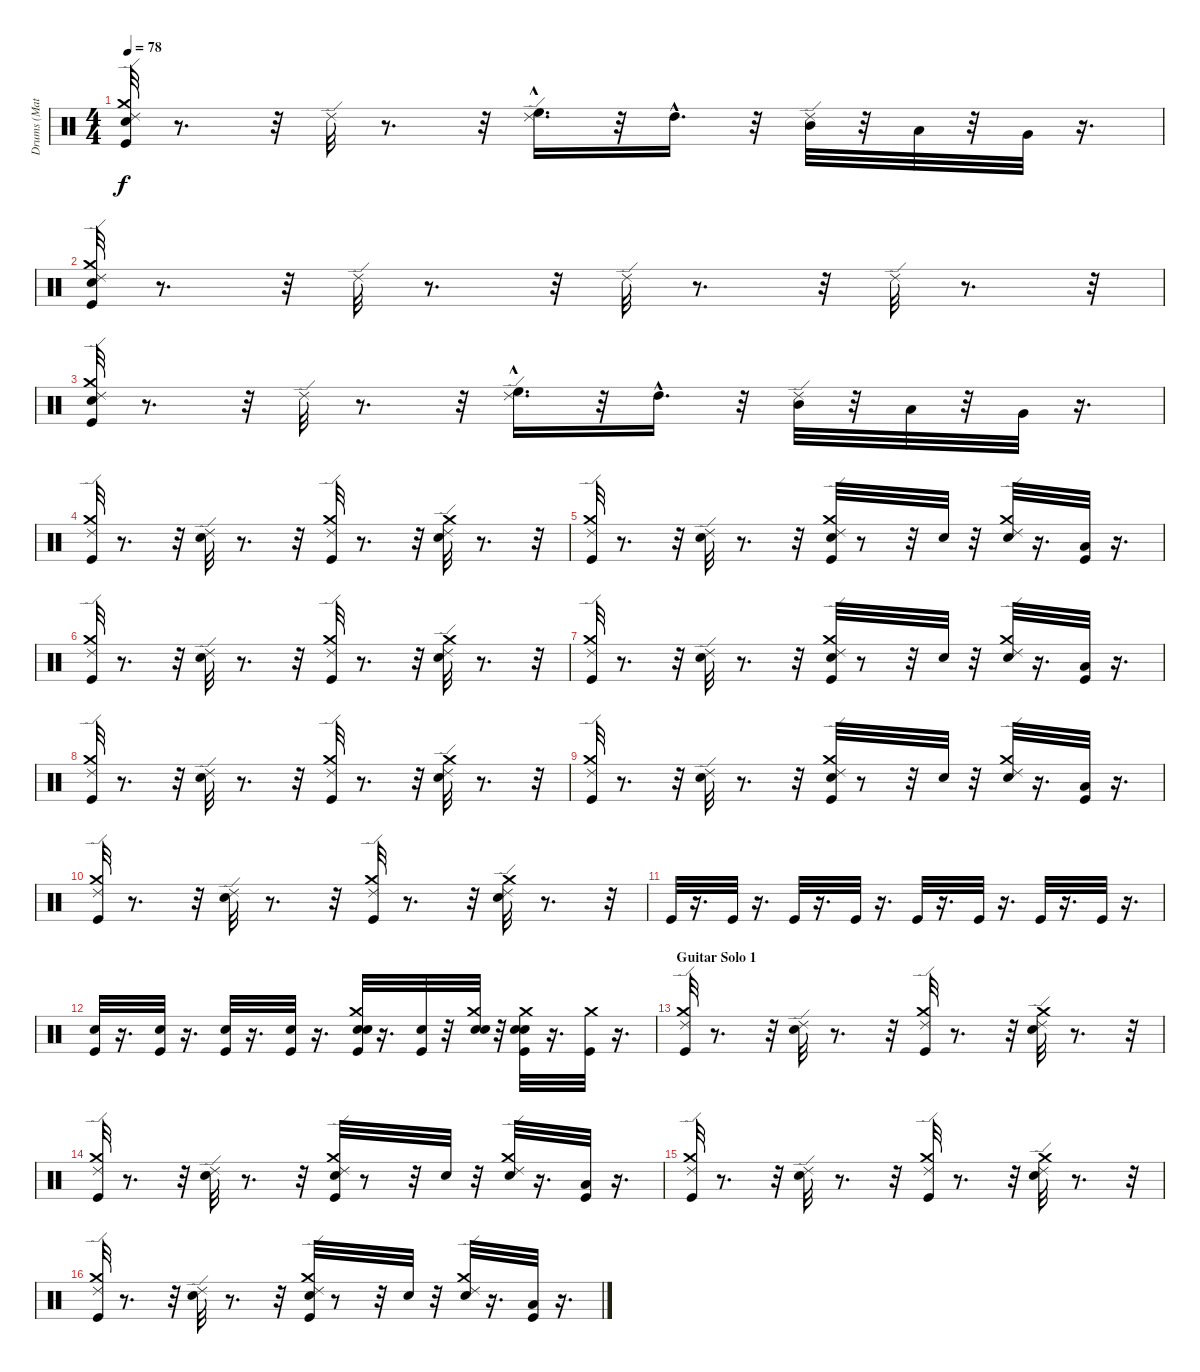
\track ("Drums (Matt)" "Drums (Mat") {instrument percussion}
\staff {score}
\articulation defaults
\ts (4 4)
\tempo 78
\clef neutral
\ks c
("Kick (hit)" "Snare (hit) 2" "Crash medium (hit)" "Ride (edge) 2").32{dy f} r.8{d} r.32 "Ride (edge) 2".32 r.8{d} r.32 ("Ride (edge) 2" "High Floor Tom (hit)"{hac}).16{d} r.32 "High Tom (hit)"{hac}.16{d} r.32 ("Ride (edge) 2" "Mid Tom (hit)").32 r.32 "Low Tom (hit)".32 r.32 "Very Low Tom (hit)".32 r.16{d} |
("Kick (hit)" "Snare (hit) 2" "Crash medium (hit)" "Ride (edge) 2").32 r.8{d} r.32 "Ride (edge) 2".32 r.8{d} r.32 "Ride (edge) 2".32 r.8{d} r.32 "Ride (edge) 2".32 r.8{d} r.32 |
("Kick (hit)" "Snare (hit) 2" "Crash medium (hit)" "Ride (edge) 2").32 r.8{d} r.32 "Ride (edge) 2".32 r.8{d} r.32 ("Ride (edge) 2" "High Floor Tom (hit)"{hac}).16{d} r.32 "High Tom (hit)"{hac}.16{d} r.32 ("Ride (edge) 2" "Mid Tom (hit)").32 r.32 "Low Tom (hit)".32 r.32 "Very Low Tom (hit)".32 r.16{d} |
("Kick (hit)" "Crash medium (hit)" "Ride (edge) 2").32 r.8{d} r.32 ("Snare (hit) 2" "Ride (edge) 2").32 r.8{d} r.32 ("Ride (edge) 2" "Crash medium (hit)" "Kick (hit)").32 r.8{d} r.32 ("Ride (edge) 2" "Crash medium (hit)" "Snare (hit) 2").32 r.8{d} r.32 |
("Kick (hit)" "Crash medium (hit)" "Ride (edge) 2").32 r.8{d} r.32 ("Snare (hit) 2" "Ride (edge) 2").32 r.8{d} r.32 ("Ride (edge) 2" "Crash medium (hit)" "Kick (hit)" "Snare (hit) 2").32 r.8 r.32 "Snare (hit) 2".32 r.32 ("Ride (edge) 2" "Crash medium (hit)" "Snare (hit) 2").32 r.16{d} ("Kick (hit)" "Low Floor Tom (hit)").32 r.16{d} |
("Kick (hit)" "Crash medium (hit)" "Ride (edge) 2").32 r.8{d} r.32 ("Snare (hit) 2" "Ride (edge) 2").32 r.8{d} r.32 ("Ride (edge) 2" "Crash medium (hit)" "Kick (hit)").32 r.8{d} r.32 ("Ride (edge) 2" "Crash medium (hit)" "Snare (hit) 2").32 r.8{d} r.32 |
("Kick (hit)" "Crash medium (hit)" "Ride (edge) 2").32 r.8{d} r.32 ("Snare (hit) 2" "Ride (edge) 2").32 r.8{d} r.32 ("Ride (edge) 2" "Crash medium (hit)" "Kick (hit)" "Snare (hit) 2").32 r.8 r.32 "Snare (hit) 2".32 r.32 ("Ride (edge) 2" "Crash medium (hit)" "Snare (hit) 2").32 r.16{d} ("Kick (hit)" "Low Floor Tom (hit)").32 r.16{d} |
("Kick (hit)" "Crash medium (hit)" "Ride (edge) 2").32 r.8{d} r.32 ("Snare (hit) 2" "Ride (edge) 2").32 r.8{d} r.32 ("Ride (edge) 2" "Crash medium (hit)" "Kick (hit)").32 r.8{d} r.32 ("Ride (edge) 2" "Crash medium (hit)" "Snare (hit) 2").32 r.8{d} r.32 |
("Kick (hit)" "Crash medium (hit)" "Ride (edge) 2").32 r.8{d} r.32 ("Snare (hit) 2" "Ride (edge) 2").32 r.8{d} r.32 ("Ride (edge) 2" "Crash medium (hit)" "Kick (hit)" "Snare (hit) 2").32 r.8 r.32 "Snare (hit) 2".32 r.32 ("Ride (edge) 2" "Crash medium (hit)" "Snare (hit) 2").32 r.16{d} ("Kick (hit)" "Low Floor Tom (hit)").32 r.16{d} |
("Kick (hit)" "Crash medium (hit)" "Ride (edge) 2").32 r.8{d} r.32 ("Snare (hit) 2" "Ride (edge) 2").32 r.8{d} r.32 ("Ride (edge) 2" "Crash medium (hit)" "Kick (hit)").32 r.8{d} r.32 ("Ride (edge) 2" "Crash medium (hit)" "Snare (hit) 2").32 r.8{d} r.32 |
"Kick (hit)".32 r.16{d} "Kick (hit)".32 r.16{d} "Kick (hit)".32 r.16{d} "Kick (hit)".32 r.16{d} "Kick (hit)".32 r.16{d} "Kick (hit)".32 r.16{d} "Kick (hit)".32 r.16{d} "Kick (hit)".32 r.16{d} |
("Kick (hit)" "Snare (hit) 2").32 r.16{d} ("Kick (hit)" "Snare (hit) 2").32 r.16{d} ("Kick (hit)" "Snare (hit) 2").32 r.16{d} ("Kick (hit)" "Snare (hit) 2").32 r.16{d} ("Kick (hit)" "Snare (hit) 2" "Electric Snare (hit)" "Crash medium (hit)").32 r.16{d} ("Kick (hit)" "Snare (hit) 2").32 r.32 ("Snare (hit) 2" "Electric Snare (hit)" "Crash medium (hit)").32 r.32 ("Kick (hit)" "Snare (hit) 2" "Electric Snare (hit)" "Crash medium (hit)").32 r.16{d} ("Kick (hit)" "Crash medium (hit)").32 r.16{d} |
\section ("" "Guitar Solo 1")
("Kick (hit)" "Crash medium (hit)" "Ride (edge) 2").32 r.8{d} r.32 ("Snare (hit) 2" "Ride (edge) 2").32 r.8{d} r.32 ("Ride (edge) 2" "Crash medium (hit)" "Kick (hit)").32 r.8{d} r.32 ("Ride (edge) 2" "Crash medium (hit)" "Snare (hit) 2").32 r.8{d} r.32 |
("Kick (hit)" "Crash medium (hit)" "Ride (edge) 2").32 r.8{d} r.32 ("Snare (hit) 2" "Ride (edge) 2").32 r.8{d} r.32 ("Ride (edge) 2" "Crash medium (hit)" "Kick (hit)" "Snare (hit) 2").32 r.8 r.32 "Snare (hit) 2".32 r.32 ("Ride (edge) 2" "Crash medium (hit)" "Snare (hit) 2").32 r.16{d} ("Kick (hit)" "Low Floor Tom (hit)").32 r.16{d} |
("Kick (hit)" "Crash medium (hit)" "Ride (edge) 2").32 r.8{d} r.32 ("Snare (hit) 2" "Ride (edge) 2").32 r.8{d} r.32 ("Ride (edge) 2" "Crash medium (hit)" "Kick (hit)").32 r.8{d} r.32 ("Ride (edge) 2" "Crash medium (hit)" "Snare (hit) 2").32 r.8{d} r.32 |
("Kick (hit)" "Crash medium (hit)" "Ride (edge) 2").32 r.8{d} r.32 ("Snare (hit) 2" "Ride (edge) 2").32 r.8{d} r.32 ("Ride (edge) 2" "Crash medium (hit)" "Kick (hit)" "Snare (hit) 2").32 r.8 r.32 "Snare (hit) 2".32 r.32 ("Ride (edge) 2" "Crash medium (hit)" "Snare (hit) 2").32 r.16{d} ("Kick (hit)" "Low Floor Tom (hit)").32 r.16{d}
